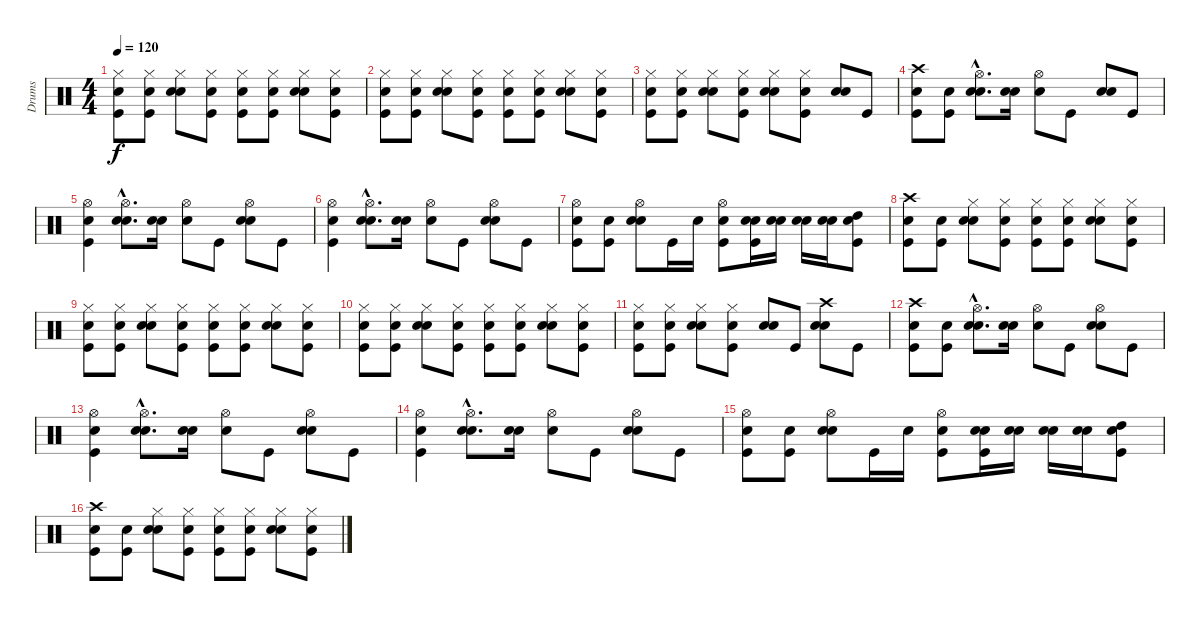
\track ("Drums" "Drums") {instrument percussion}
\staff {score}
\articulation defaults
\ts (4 4)
\tempo 120
\clef neutral
\ks c
("Snare (hit)" "Kick (hit)" "Hi-Hat (closed)").8{dy f} ("Snare (hit)" "Kick (hit)" "Hi-Hat (closed)").8 ("Snare (hit)" "Electric Snare (hit)" "Hi-Hat (closed)").8 ("Snare (hit)" "Kick (hit)" "Hi-Hat (closed)").8 ("Snare (hit)" "Kick (hit)" "Hi-Hat (closed)").8 ("Snare (hit)" "Kick (hit)" "Hi-Hat (closed)").8 ("Snare (hit)" "Electric Snare (hit)" "Hi-Hat (closed)").8 ("Snare (hit)" "Kick (hit)" "Hi-Hat (closed)").8 |
("Snare (hit)" "Kick (hit)" "Hi-Hat (closed)").8 ("Snare (hit)" "Kick (hit)" "Hi-Hat (closed)").8 ("Snare (hit)" "Electric Snare (hit)" "Hi-Hat (closed)").8 ("Snare (hit)" "Kick (hit)" "Hi-Hat (closed)").8 ("Snare (hit)" "Kick (hit)" "Hi-Hat (closed)").8 ("Snare (hit)" "Kick (hit)" "Hi-Hat (closed)").8 ("Snare (hit)" "Electric Snare (hit)" "Hi-Hat (closed)").8 ("Snare (hit)" "Kick (hit)" "Hi-Hat (closed)").8 |
("Snare (hit)" "Kick (hit)" "Hi-Hat (closed)").8 ("Snare (hit)" "Kick (hit)" "Hi-Hat (closed)").8 ("Snare (hit)" "Electric Snare (hit)" "Hi-Hat (closed)").8 ("Snare (hit)" "Kick (hit)" "Hi-Hat (closed)").8 ("Snare (hit)" "Electric Snare (hit)" "Hi-Hat (closed)").8 ("Snare (hit)" "Kick (hit)" "Hi-Hat (closed)").8 ("Snare (hit)" "Electric Snare (hit)").8 "Kick (hit)".8 |
("Snare (hit)" "Kick (hit)" "Crash high (hit)").8 ("Snare (hit)" "Kick (hit)").8 ("Snare (hit)"{hac} "Electric Snare (hit)"{hac} "Hi-Hat (open)"{hac}).8{d} ("Snare (hit)" "Electric Snare (hit)").16 ("Snare (hit)" "Hi-Hat (open)").8 "Kick (hit)".8 ("Snare (hit)" "Electric Snare (hit)").8 "Kick (hit)".8 |
("Snare (hit)" "Kick (hit)" "Hi-Hat (open)").4 ("Snare (hit)"{hac} "Electric Snare (hit)"{hac} "Hi-Hat (open)"{hac}).8{d} ("Snare (hit)" "Electric Snare (hit)").16 ("Snare (hit)" "Hi-Hat (open)").8 "Kick (hit)".8 ("Snare (hit)" "Electric Snare (hit)" "Hi-Hat (open)").8 "Kick (hit)".8 |
("Snare (hit)" "Kick (hit)" "Hi-Hat (open)").4 ("Snare (hit)"{hac} "Electric Snare (hit)"{hac} "Hi-Hat (open)"{hac}).8{d} ("Snare (hit)" "Electric Snare (hit)").16 ("Snare (hit)" "Hi-Hat (open)").8 "Kick (hit)".8 ("Snare (hit)" "Electric Snare (hit)" "Hi-Hat (open)").8 "Kick (hit)".8 |
("Snare (hit)" "Kick (hit)" "Hi-Hat (open)").8 ("Snare (hit)" "Kick (hit)").8 ("Snare (hit)" "Electric Snare (hit)" "Hi-Hat (open)").8 "Kick (hit)".16 "Electric Snare (hit)".16 ("Snare (hit)" "Kick (hit)" "Hi-Hat (open)").8 ("Snare (hit)" "Kick (hit)" "Electric Snare (hit)").16 ("Snare (hit)" "Electric Snare (hit)").16 ("Snare (hit)" "Electric Snare (hit)").16 ("Snare (hit)" "Electric Snare (hit)").16 ("Snare (hit)" "Kick (hit)" "High Tom (hit)").8 |
("Snare (hit)" "Kick (hit)" "Crash high (hit)").8 ("Snare (hit)" "Kick (hit)").8 ("Snare (hit)" "Electric Snare (hit)" "Hi-Hat (closed)").8 ("Snare (hit)" "Kick (hit)" "Hi-Hat (closed)").8 ("Snare (hit)" "Kick (hit)" "Hi-Hat (closed)").8 ("Snare (hit)" "Kick (hit)" "Hi-Hat (closed)").8 ("Snare (hit)" "Electric Snare (hit)" "Hi-Hat (closed)").8 ("Snare (hit)" "Kick (hit)" "Hi-Hat (closed)").8 |
("Snare (hit)" "Kick (hit)" "Hi-Hat (closed)").8 ("Snare (hit)" "Kick (hit)" "Hi-Hat (closed)").8 ("Snare (hit)" "Electric Snare (hit)" "Hi-Hat (closed)").8 ("Snare (hit)" "Kick (hit)" "Hi-Hat (closed)").8 ("Snare (hit)" "Kick (hit)" "Hi-Hat (closed)").8 ("Snare (hit)" "Kick (hit)" "Hi-Hat (closed)").8 ("Snare (hit)" "Electric Snare (hit)" "Hi-Hat (closed)").8 ("Snare (hit)" "Kick (hit)" "Hi-Hat (closed)").8 |
("Snare (hit)" "Kick (hit)" "Hi-Hat (closed)").8 ("Snare (hit)" "Kick (hit)" "Hi-Hat (closed)").8 ("Snare (hit)" "Electric Snare (hit)" "Hi-Hat (closed)").8 ("Snare (hit)" "Kick (hit)" "Hi-Hat (closed)").8 ("Snare (hit)" "Kick (hit)" "Hi-Hat (closed)").8 ("Snare (hit)" "Kick (hit)" "Hi-Hat (closed)").8 ("Snare (hit)" "Electric Snare (hit)" "Hi-Hat (closed)").8 ("Snare (hit)" "Kick (hit)" "Hi-Hat (closed)").8 |
("Snare (hit)" "Kick (hit)" "Hi-Hat (closed)").8 ("Snare (hit)" "Kick (hit)" "Hi-Hat (closed)").8 ("Snare (hit)" "Electric Snare (hit)" "Hi-Hat (closed)").8 ("Snare (hit)" "Kick (hit)" "Hi-Hat (closed)").8 ("Snare (hit)" "Electric Snare (hit)").8 "Kick (hit)".8 ("Snare (hit)" "Electric Snare (hit)" "Crash high (hit)").8 "Kick (hit)".8 |
("Snare (hit)" "Kick (hit)" "Crash high (hit)").8 ("Snare (hit)" "Kick (hit)").8 ("Snare (hit)"{hac} "Electric Snare (hit)"{hac} "Hi-Hat (open)"{hac}).8{d} ("Snare (hit)" "Electric Snare (hit)").16 ("Snare (hit)" "Hi-Hat (open)").8 "Kick (hit)".8 ("Snare (hit)" "Electric Snare (hit)" "Hi-Hat (open)").8 "Kick (hit)".8 |
("Snare (hit)" "Kick (hit)" "Hi-Hat (open)").4 ("Snare (hit)"{hac} "Electric Snare (hit)"{hac} "Hi-Hat (open)"{hac}).8{d} ("Snare (hit)" "Electric Snare (hit)").16 ("Snare (hit)" "Hi-Hat (open)").8 "Kick (hit)".8 ("Snare (hit)" "Electric Snare (hit)" "Hi-Hat (open)").8 "Kick (hit)".8 |
("Snare (hit)" "Kick (hit)" "Hi-Hat (open)").4 ("Snare (hit)"{hac} "Electric Snare (hit)"{hac} "Hi-Hat (open)"{hac}).8{d} ("Snare (hit)" "Electric Snare (hit)").16 ("Snare (hit)" "Hi-Hat (open)").8 "Kick (hit)".8 ("Snare (hit)" "Electric Snare (hit)" "Hi-Hat (open)").8 "Kick (hit)".8 |
("Snare (hit)" "Kick (hit)" "Hi-Hat (open)").8 ("Snare (hit)" "Kick (hit)").8 ("Snare (hit)" "Electric Snare (hit)" "Hi-Hat (open)").8 "Kick (hit)".16 "Electric Snare (hit)".16 ("Snare (hit)" "Kick (hit)" "Hi-Hat (open)").8 ("Snare (hit)" "Kick (hit)" "Electric Snare (hit)").16 ("Snare (hit)" "Electric Snare (hit)").16 ("Snare (hit)" "Electric Snare (hit)").16 ("Snare (hit)" "Electric Snare (hit)").16 ("Snare (hit)" "Kick (hit)" "High Tom (hit)").8 |
("Snare (hit)" "Kick (hit)" "Crash high (hit)").8 ("Snare (hit)" "Kick (hit)").8 ("Snare (hit)" "Electric Snare (hit)" "Hi-Hat (closed)").8 ("Snare (hit)" "Kick (hit)" "Hi-Hat (closed)").8 ("Snare (hit)" "Kick (hit)" "Hi-Hat (closed)").8 ("Snare (hit)" "Kick (hit)" "Hi-Hat (closed)").8 ("Snare (hit)" "Electric Snare (hit)" "Hi-Hat (closed)").8 ("Snare (hit)" "Kick (hit)" "Hi-Hat (closed)").8
